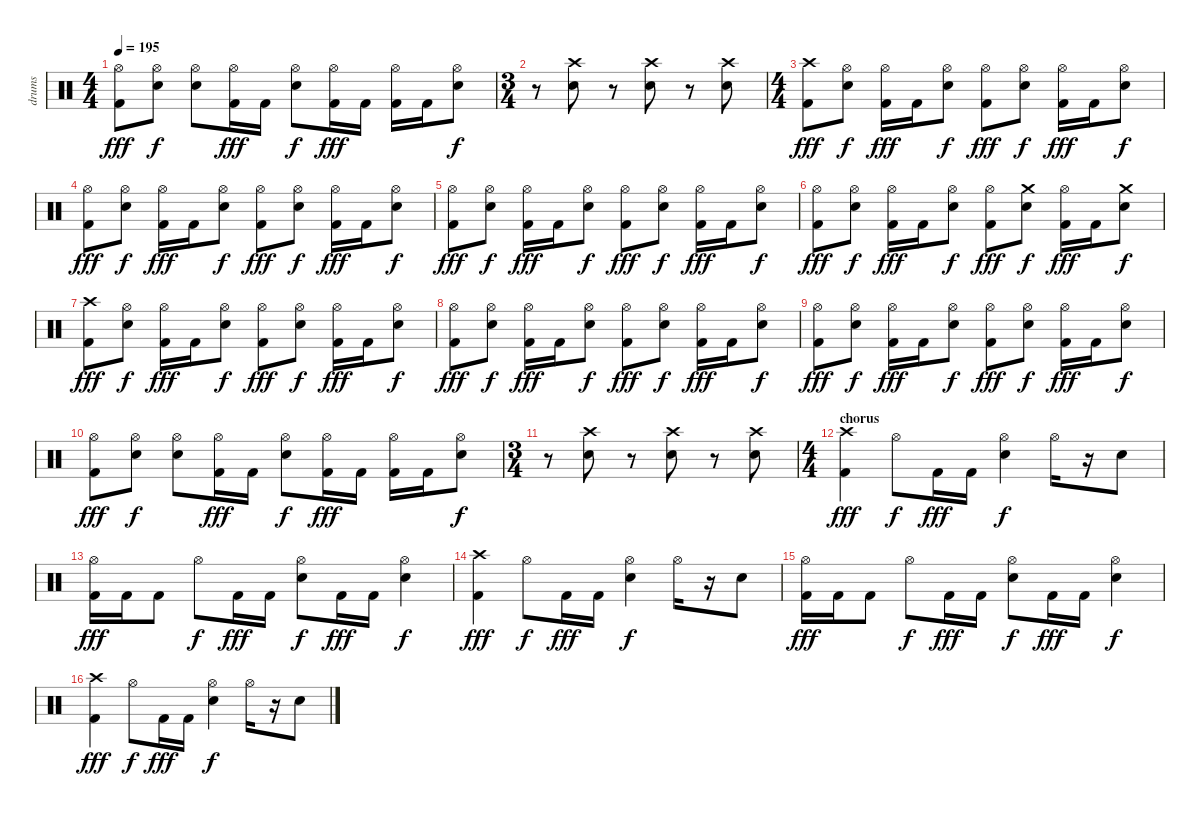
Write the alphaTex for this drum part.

\track ("drums" "drums") {instrument percussion}
\staff {score}
\articulation defaults
\ts (4 4)
\tempo 195
\clef neutral
\ks c
("Hi-Hat (open)" "Kick (hit) 2").8{dy fff} ("Hi-Hat (open)" "Snare (hit) 2").8{dy f} ("Hi-Hat (open)" "Snare (hit) 2").8 ("Hi-Hat (open)" "Kick (hit) 2").16{dy fff} "Kick (hit) 2".16 ("Hi-Hat (open)" "Snare (hit) 2").8{dy f} ("Hi-Hat (open)" "Kick (hit) 2").16{dy fff} "Kick (hit) 2".16 ("Hi-Hat (open)" "Kick (hit) 2").16 "Kick (hit) 2".16 ("Hi-Hat (open)" "Snare (hit) 2").8{dy f} |
\ts (3 4)
r.8 ("Crash high (hit)" "Snare (hit) 2").8 r.8 ("Crash high (hit)" "Snare (hit) 2").8 r.8 ("Crash high (hit)" "Snare (hit) 2").8 |
\ts (4 4)
("Crash high (hit)" "Kick (hit) 2").8{dy fff} ("Hi-Hat (open)" "Snare (hit) 2").8{dy f} ("Hi-Hat (open)" "Kick (hit) 2").16{dy fff} "Kick (hit) 2".16 ("Hi-Hat (open)" "Snare (hit) 2").8{dy f} ("Hi-Hat (open)" "Kick (hit) 2").8{dy fff} ("Hi-Hat (open)" "Snare (hit) 2").8{dy f} ("Hi-Hat (open)" "Kick (hit) 2").16{dy fff} "Kick (hit) 2".16 ("Hi-Hat (open)" "Snare (hit) 2").8{dy f} |
("Hi-Hat (open)" "Kick (hit) 2").8{dy fff} ("Hi-Hat (open)" "Snare (hit) 2").8{dy f} ("Hi-Hat (open)" "Kick (hit) 2").16{dy fff} "Kick (hit) 2".16 ("Hi-Hat (open)" "Snare (hit) 2").8{dy f} ("Hi-Hat (open)" "Kick (hit) 2").8{dy fff} ("Hi-Hat (open)" "Snare (hit) 2").8{dy f} ("Hi-Hat (open)" "Kick (hit) 2").16{dy fff} "Kick (hit) 2".16 ("Hi-Hat (open)" "Snare (hit) 2").8{dy f} |
("Hi-Hat (open)" "Kick (hit) 2").8{dy fff} ("Hi-Hat (open)" "Snare (hit) 2").8{dy f} ("Hi-Hat (open)" "Kick (hit) 2").16{dy fff} "Kick (hit) 2".16 ("Hi-Hat (open)" "Snare (hit) 2").8{dy f} ("Hi-Hat (open)" "Kick (hit) 2").8{dy fff} ("Hi-Hat (open)" "Snare (hit) 2").8{dy f} ("Hi-Hat (open)" "Kick (hit) 2").16{dy fff} "Kick (hit) 2".16 ("Hi-Hat (open)" "Snare (hit) 2").8{dy f} |
("Hi-Hat (open)" "Kick (hit) 2").8{dy fff} ("Hi-Hat (open)" "Snare (hit) 2").8{dy f} ("Hi-Hat (open)" "Kick (hit) 2").16{dy fff} "Kick (hit) 2".16 ("Hi-Hat (open)" "Snare (hit) 2").8{dy f} ("Hi-Hat (open)" "Kick (hit) 2").8{dy fff} ("Crash medium (hit)" "Snare (hit) 2").8{dy f} ("Hi-Hat (open)" "Kick (hit) 2").16{dy fff} "Kick (hit) 2".16 ("Crash medium (hit)" "Snare (hit) 2").8{dy f} |
("Crash high (hit)" "Kick (hit) 2").8{dy fff} ("Hi-Hat (open)" "Snare (hit) 2").8{dy f} ("Hi-Hat (open)" "Kick (hit) 2").16{dy fff} "Kick (hit) 2".16 ("Hi-Hat (open)" "Snare (hit) 2").8{dy f} ("Hi-Hat (open)" "Kick (hit) 2").8{dy fff} ("Hi-Hat (open)" "Snare (hit) 2").8{dy f} ("Hi-Hat (open)" "Kick (hit) 2").16{dy fff} "Kick (hit) 2".16 ("Hi-Hat (open)" "Snare (hit) 2").8{dy f} |
("Hi-Hat (open)" "Kick (hit) 2").8{dy fff} ("Hi-Hat (open)" "Snare (hit) 2").8{dy f} ("Hi-Hat (open)" "Kick (hit) 2").16{dy fff} "Kick (hit) 2".16 ("Hi-Hat (open)" "Snare (hit) 2").8{dy f} ("Hi-Hat (open)" "Kick (hit) 2").8{dy fff} ("Hi-Hat (open)" "Snare (hit) 2").8{dy f} ("Hi-Hat (open)" "Kick (hit) 2").16{dy fff} "Kick (hit) 2".16 ("Hi-Hat (open)" "Snare (hit) 2").8{dy f} |
("Hi-Hat (open)" "Kick (hit) 2").8{dy fff} ("Hi-Hat (open)" "Snare (hit) 2").8{dy f} ("Hi-Hat (open)" "Kick (hit) 2").16{dy fff} "Kick (hit) 2".16 ("Hi-Hat (open)" "Snare (hit) 2").8{dy f} ("Hi-Hat (open)" "Kick (hit) 2").8{dy fff} ("Hi-Hat (open)" "Snare (hit) 2").8{dy f} ("Hi-Hat (open)" "Kick (hit) 2").16{dy fff} "Kick (hit) 2".16 ("Hi-Hat (open)" "Snare (hit) 2").8{dy f} |
("Hi-Hat (open)" "Kick (hit) 2").8{dy fff} ("Hi-Hat (open)" "Snare (hit) 2").8{dy f} ("Hi-Hat (open)" "Snare (hit) 2").8 ("Hi-Hat (open)" "Kick (hit) 2").16{dy fff} "Kick (hit) 2".16 ("Hi-Hat (open)" "Snare (hit) 2").8{dy f} ("Hi-Hat (open)" "Kick (hit) 2").16{dy fff} "Kick (hit) 2".16 ("Hi-Hat (open)" "Kick (hit) 2").16 "Kick (hit) 2".16 ("Hi-Hat (open)" "Snare (hit) 2").8{dy f} |
\ts (3 4)
r.8 ("Crash high (hit)" "Snare (hit) 2").8 r.8 ("Crash high (hit)" "Snare (hit) 2").8 r.8 ("Crash high (hit)" "Snare (hit) 2").8 |
\ts (4 4)
\section ("" "chorus")
("Crash high (hit)" "Kick (hit) 2").4{dy fff} "Hi-Hat (open)".8{dy f} "Kick (hit) 2".16{dy fff} "Kick (hit) 2".16 ("Hi-Hat (open)" "Snare (hit) 2").4{dy f} "Hi-Hat (open)".16 r.16 "Snare (hit) 2".8 |
("Hi-Hat (open)" "Kick (hit) 2").16{dy fff} "Kick (hit) 2".16 "Kick (hit) 2".8 "Hi-Hat (open)".8{dy f} "Kick (hit) 2".16{dy fff} "Kick (hit) 2".16 ("Hi-Hat (open)" "Snare (hit) 2").8{dy f} "Kick (hit) 2".16{dy fff} "Kick (hit) 2".16 ("Hi-Hat (open)" "Snare (hit) 2").4{dy f} |
("Crash high (hit)" "Kick (hit) 2").4{dy fff} "Hi-Hat (open)".8{dy f} "Kick (hit) 2".16{dy fff} "Kick (hit) 2".16 ("Hi-Hat (open)" "Snare (hit) 2").4{dy f} "Hi-Hat (open)".16 r.16 "Snare (hit) 2".8 |
("Hi-Hat (open)" "Kick (hit) 2").16{dy fff} "Kick (hit) 2".16 "Kick (hit) 2".8 "Hi-Hat (open)".8{dy f} "Kick (hit) 2".16{dy fff} "Kick (hit) 2".16 ("Hi-Hat (open)" "Snare (hit) 2").8{dy f} "Kick (hit) 2".16{dy fff} "Kick (hit) 2".16 ("Hi-Hat (open)" "Snare (hit) 2").4{dy f} |
("Crash high (hit)" "Kick (hit) 2").4{dy fff} "Hi-Hat (open)".8{dy f} "Kick (hit) 2".16{dy fff} "Kick (hit) 2".16 ("Hi-Hat (open)" "Snare (hit) 2").4{dy f} "Hi-Hat (open)".16 r.16 "Snare (hit) 2".8
